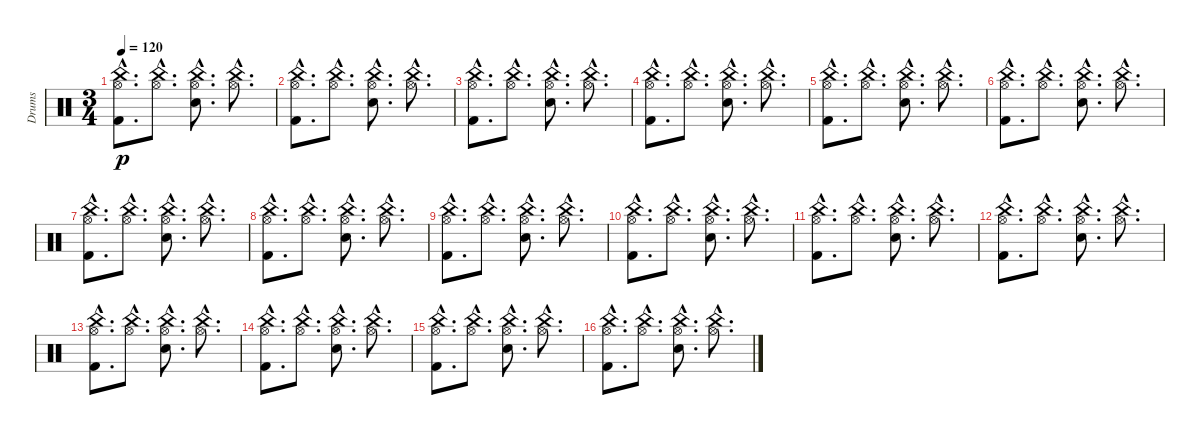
\track ("Drums" "Drums") {instrument percussion}
\staff {score}
\articulation defaults
\ts (3 4)
\tempo 120
\clef neutral
\ks c
("China (hit)"{hac} "Hi-Hat (open)"{hac} "Kick (hit) 2"{hac}).8{d dy p} ("China (hit)"{hac} "Hi-Hat (open)"{hac}).8{d} ("China (hit)"{hac} "Hi-Hat (open)"{hac} "Electric Snare (hit)"{hac}).8{d} ("China (hit)"{hac} "Hi-Hat (open)"{hac}).8{d} |
("China (hit)"{hac} "Hi-Hat (open)"{hac} "Kick (hit) 2"{hac}).8{d} ("China (hit)"{hac} "Hi-Hat (open)"{hac}).8{d} ("China (hit)"{hac} "Hi-Hat (open)"{hac} "Electric Snare (hit)"{hac}).8{d} ("China (hit)"{hac} "Hi-Hat (open)"{hac}).8{d} |
("China (hit)"{hac} "Hi-Hat (open)"{hac} "Kick (hit) 2"{hac}).8{d} ("China (hit)"{hac} "Hi-Hat (open)"{hac}).8{d} ("China (hit)"{hac} "Hi-Hat (open)"{hac} "Electric Snare (hit)"{hac}).8{d} ("China (hit)"{hac} "Hi-Hat (open)"{hac}).8{d} |
("China (hit)"{hac} "Hi-Hat (open)"{hac} "Kick (hit) 2"{hac}).8{d} ("China (hit)"{hac} "Hi-Hat (open)"{hac}).8{d} ("China (hit)"{hac} "Hi-Hat (open)"{hac} "Electric Snare (hit)"{hac}).8{d} ("China (hit)"{hac} "Hi-Hat (open)"{hac}).8{d} |
("China (hit)"{hac} "Hi-Hat (open)"{hac} "Kick (hit) 2"{hac}).8{d} ("China (hit)"{hac} "Hi-Hat (open)"{hac}).8{d} ("China (hit)"{hac} "Hi-Hat (open)"{hac} "Electric Snare (hit)"{hac}).8{d} ("China (hit)"{hac} "Hi-Hat (open)"{hac}).8{d} |
("China (hit)"{hac} "Hi-Hat (open)"{hac} "Kick (hit) 2"{hac}).8{d} ("China (hit)"{hac} "Hi-Hat (open)"{hac}).8{d} ("China (hit)"{hac} "Hi-Hat (open)"{hac} "Electric Snare (hit)"{hac}).8{d} ("China (hit)"{hac} "Hi-Hat (open)"{hac}).8{d} |
("China (hit)"{hac} "Hi-Hat (open)"{hac} "Kick (hit) 2"{hac}).8{d} ("China (hit)"{hac} "Hi-Hat (open)"{hac}).8{d} ("China (hit)"{hac} "Hi-Hat (open)"{hac} "Electric Snare (hit)"{hac}).8{d} ("China (hit)"{hac} "Hi-Hat (open)"{hac}).8{d} |
("China (hit)"{hac} "Hi-Hat (open)"{hac} "Kick (hit) 2"{hac}).8{d} ("China (hit)"{hac} "Hi-Hat (open)"{hac}).8{d} ("China (hit)"{hac} "Hi-Hat (open)"{hac} "Electric Snare (hit)"{hac}).8{d} ("China (hit)"{hac} "Hi-Hat (open)"{hac}).8{d} |
("China (hit)"{hac} "Hi-Hat (open)"{hac} "Kick (hit) 2"{hac}).8{d} ("China (hit)"{hac} "Hi-Hat (open)"{hac}).8{d} ("China (hit)"{hac} "Hi-Hat (open)"{hac} "Electric Snare (hit)"{hac}).8{d} ("China (hit)"{hac} "Hi-Hat (open)"{hac}).8{d} |
("China (hit)"{hac} "Hi-Hat (open)"{hac} "Kick (hit) 2"{hac}).8{d} ("China (hit)"{hac} "Hi-Hat (open)"{hac}).8{d} ("China (hit)"{hac} "Hi-Hat (open)"{hac} "Electric Snare (hit)"{hac}).8{d} ("China (hit)"{hac} "Hi-Hat (open)"{hac}).8{d} |
("China (hit)"{hac} "Hi-Hat (open)"{hac} "Kick (hit) 2"{hac}).8{d} ("China (hit)"{hac} "Hi-Hat (open)"{hac}).8{d} ("China (hit)"{hac} "Hi-Hat (open)"{hac} "Electric Snare (hit)"{hac}).8{d} ("China (hit)"{hac} "Hi-Hat (open)"{hac}).8{d} |
("China (hit)"{hac} "Hi-Hat (open)"{hac} "Kick (hit) 2"{hac}).8{d} ("China (hit)"{hac} "Hi-Hat (open)"{hac}).8{d} ("China (hit)"{hac} "Hi-Hat (open)"{hac} "Electric Snare (hit)"{hac}).8{d} ("China (hit)"{hac} "Hi-Hat (open)"{hac}).8{d} |
("China (hit)"{hac} "Hi-Hat (open)"{hac} "Kick (hit) 2"{hac}).8{d} ("China (hit)"{hac} "Hi-Hat (open)"{hac}).8{d} ("China (hit)"{hac} "Hi-Hat (open)"{hac} "Electric Snare (hit)"{hac}).8{d} ("China (hit)"{hac} "Hi-Hat (open)"{hac}).8{d} |
("China (hit)"{hac} "Hi-Hat (open)"{hac} "Kick (hit) 2"{hac}).8{d} ("China (hit)"{hac} "Hi-Hat (open)"{hac}).8{d} ("China (hit)"{hac} "Hi-Hat (open)"{hac} "Electric Snare (hit)"{hac}).8{d} ("China (hit)"{hac} "Hi-Hat (open)"{hac}).8{d} |
("China (hit)"{hac} "Hi-Hat (open)"{hac} "Kick (hit) 2"{hac}).8{d} ("China (hit)"{hac} "Hi-Hat (open)"{hac}).8{d} ("China (hit)"{hac} "Hi-Hat (open)"{hac} "Electric Snare (hit)"{hac}).8{d} ("China (hit)"{hac} "Hi-Hat (open)"{hac}).8{d} |
("China (hit)"{hac} "Hi-Hat (open)"{hac} "Kick (hit) 2"{hac}).8{d} ("China (hit)"{hac} "Hi-Hat (open)"{hac}).8{d} ("China (hit)"{hac} "Hi-Hat (open)"{hac} "Electric Snare (hit)"{hac}).8{d} ("China (hit)"{hac} "Hi-Hat (open)"{hac}).8{d}
